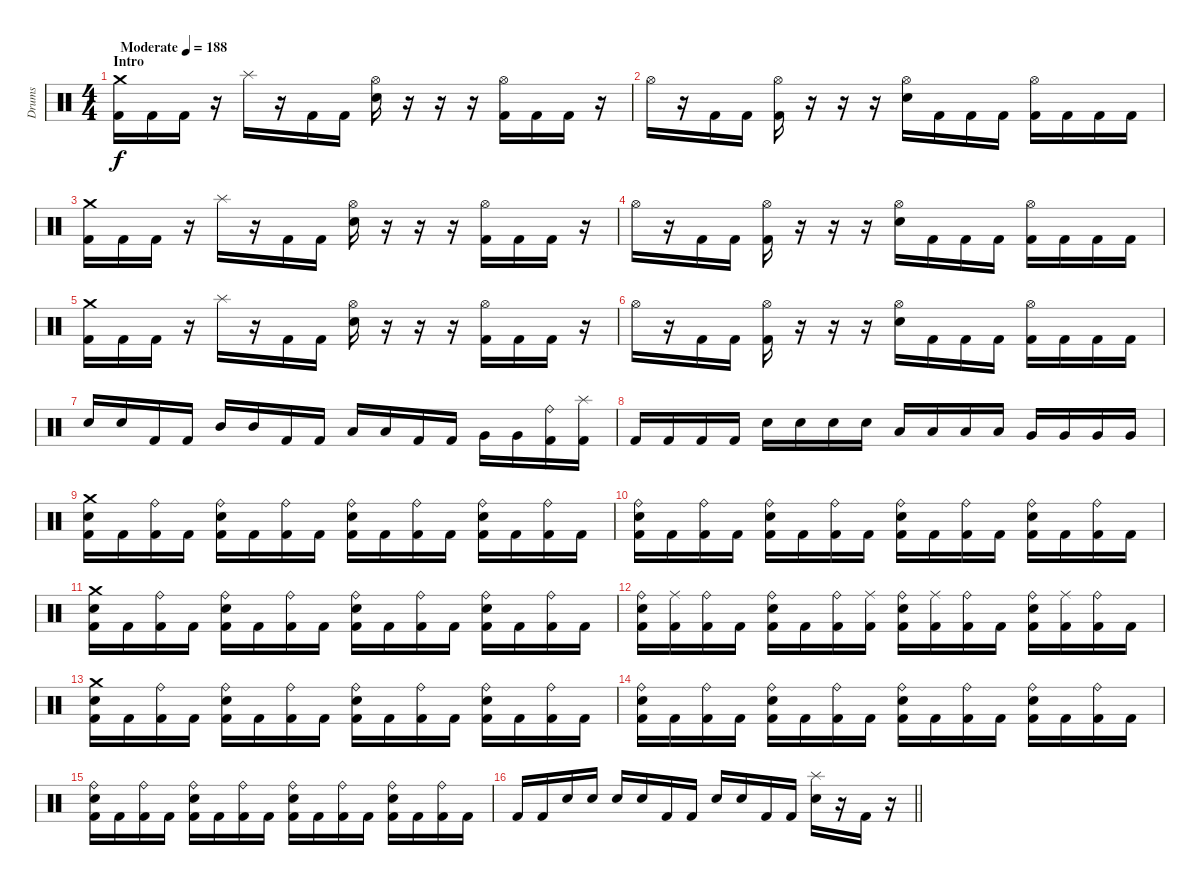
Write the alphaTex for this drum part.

\track ("Drums" "Drums") {instrument percussion}
\staff {score}
\articulation defaults
\ts (4 4)
\section ("" "Intro")
\tempo (188 "Moderate")
\clef neutral
\ks c
("Crash medium (hit)" "Kick (hit) 2").16{dy f} "Kick (hit) 2".16 "Kick (hit) 2".16 r.16 "Splash (hit)".16 r.16 "Kick (hit) 2".16 "Kick (hit) 2".16 ("Hi-Hat (open)" "Snare (hit) 2").16 r.16 r.16 r.16 ("Hi-Hat (open)" "Kick (hit) 2").16 "Kick (hit) 2".16 "Kick (hit) 2".16 r.16 |
"Hi-Hat (open)".16 r.16 "Kick (hit) 2".16 "Kick (hit) 2".16 ("Hi-Hat (open)" "Kick (hit) 2").16 r.16 r.16 r.16 ("Hi-Hat (open)" "Snare (hit) 2").16 "Kick (hit) 2".16 "Kick (hit) 2".16 "Kick (hit) 2".16 ("Hi-Hat (open)" "Kick (hit) 2").16 "Kick (hit) 2".16 "Kick (hit) 2".16 "Kick (hit) 2".16 |
("Crash medium (hit)" "Kick (hit) 2").16 "Kick (hit) 2".16 "Kick (hit) 2".16 r.16 "Splash (hit)".16 r.16 "Kick (hit) 2".16 "Kick (hit) 2".16 ("Hi-Hat (open)" "Snare (hit) 2").16 r.16 r.16 r.16 ("Hi-Hat (open)" "Kick (hit) 2").16 "Kick (hit) 2".16 "Kick (hit) 2".16 r.16 |
"Hi-Hat (open)".16 r.16 "Kick (hit) 2".16 "Kick (hit) 2".16 ("Hi-Hat (open)" "Kick (hit) 2").16 r.16 r.16 r.16 ("Hi-Hat (open)" "Snare (hit) 2").16 "Kick (hit) 2".16 "Kick (hit) 2".16 "Kick (hit) 2".16 ("Hi-Hat (open)" "Kick (hit) 2").16 "Kick (hit) 2".16 "Kick (hit) 2".16 "Kick (hit) 2".16 |
("Crash medium (hit)" "Kick (hit) 2").16 "Kick (hit) 2".16 "Kick (hit) 2".16 r.16 "Splash (hit)".16 r.16 "Kick (hit) 2".16 "Kick (hit) 2".16 ("Hi-Hat (open)" "Snare (hit) 2").16 r.16 r.16 r.16 ("Hi-Hat (open)" "Kick (hit) 2").16 "Kick (hit) 2".16 "Kick (hit) 2".16 r.16 |
"Hi-Hat (open)".16 r.16 "Kick (hit) 2".16 "Kick (hit) 2".16 ("Hi-Hat (open)" "Kick (hit) 2").16 r.16 r.16 r.16 ("Hi-Hat (open)" "Snare (hit) 2").16 "Kick (hit) 2".16 "Kick (hit) 2".16 "Kick (hit) 2".16 ("Hi-Hat (open)" "Kick (hit) 2").16 "Kick (hit) 2".16 "Kick (hit) 2".16 "Kick (hit) 2".16 |
"Snare (hit) 2".16 "Snare (hit) 2".16 "Kick (hit) 2".16 "Kick (hit) 2".16 "Mid Tom (hit)".16 "Mid Tom (hit)".16 "Kick (hit) 2".16 "Kick (hit) 2".16 "Low Tom (hit)".16 "Low Tom (hit)".16 "Kick (hit) 2".16 "Kick (hit) 2".16 "Very Low Tom (hit)".16 "Very Low Tom (hit)".16 ("Ride (bell)" "Kick (hit) 2").16 ("Splash (hit)" "Kick (hit) 2").16 |
"Kick (hit) 2".16 "Kick (hit) 2".16 "Kick (hit) 2".16 "Kick (hit) 2".16 "Snare (hit) 2".16 "Snare (hit) 2".16 "Snare (hit) 2".16 "Snare (hit) 2".16 "Low Tom (hit)".16 "Low Tom (hit)".16 "Low Tom (hit)".16 "Low Tom (hit)".16 "Very Low Tom (hit)".16 "Very Low Tom (hit)".16 "Very Low Tom (hit)".16 "Very Low Tom (hit)".16 |
("Crash medium (hit)" "Snare (hit) 2" "Kick (hit) 2").16 "Kick (hit) 2".16 ("Ride (bell)" "Kick (hit) 2").16 "Kick (hit) 2".16 ("Ride (bell)" "Snare (hit) 2" "Kick (hit) 2").16 "Kick (hit) 2".16 ("Ride (bell)" "Kick (hit) 2").16 "Kick (hit) 2".16 ("Ride (bell)" "Snare (hit) 2" "Kick (hit) 2").16 "Kick (hit) 2".16 ("Ride (bell)" "Kick (hit) 2").16 "Kick (hit) 2".16 ("Ride (bell)" "Snare (hit) 2" "Kick (hit) 2").16 "Kick (hit) 2".16 ("Ride (bell)" "Kick (hit) 2").16 "Kick (hit) 2".16 |
("Ride (bell)" "Snare (hit) 2" "Kick (hit) 2").16 "Kick (hit) 2".16 ("Ride (bell)" "Kick (hit) 2").16 "Kick (hit) 2".16 ("Ride (bell)" "Snare (hit) 2" "Kick (hit) 2").16 "Kick (hit) 2".16 ("Ride (bell)" "Kick (hit) 2").16 "Kick (hit) 2".16 ("Ride (bell)" "Snare (hit) 2" "Kick (hit) 2").16 "Kick (hit) 2".16 ("Ride (bell)" "Kick (hit) 2").16 "Kick (hit) 2".16 ("Ride (bell)" "Snare (hit) 2" "Kick (hit) 2").16 "Kick (hit) 2".16 ("Ride (bell)" "Kick (hit) 2").16 "Kick (hit) 2".16 |
("Crash medium (hit)" "Snare (hit) 2" "Kick (hit) 2").16 "Kick (hit) 2".16 ("Ride (bell)" "Kick (hit) 2").16 "Kick (hit) 2".16 ("Ride (bell)" "Snare (hit) 2" "Kick (hit) 2").16 "Kick (hit) 2".16 ("Ride (bell)" "Kick (hit) 2").16 "Kick (hit) 2".16 ("Ride (bell)" "Snare (hit) 2" "Kick (hit) 2").16 "Kick (hit) 2".16 ("Ride (bell)" "Kick (hit) 2").16 "Kick (hit) 2".16 ("Ride (bell)" "Snare (hit) 2" "Kick (hit) 2").16 "Kick (hit) 2".16 ("Ride (bell)" "Kick (hit) 2").16 "Kick (hit) 2".16 |
("Ride (bell)" "Snare (hit) 2" "Kick (hit) 2").16 ("Ride (middle)" "Kick (hit) 2").16 ("Ride (bell)" "Kick (hit) 2").16 "Kick (hit) 2".16 ("Ride (bell)" "Snare (hit) 2" "Kick (hit) 2").16 "Kick (hit) 2".16 ("Ride (bell)" "Kick (hit) 2").16 ("Ride (middle)" "Kick (hit) 2").16 ("Ride (bell)" "Snare (hit) 2" "Kick (hit) 2").16 ("Ride (middle)" "Kick (hit) 2").16 ("Ride (bell)" "Kick (hit) 2").16 "Kick (hit) 2".16 ("Ride (bell)" "Snare (hit) 2" "Kick (hit) 2").16 ("Ride (middle)" "Kick (hit) 2").16 ("Ride (bell)" "Kick (hit) 2").16 "Kick (hit) 2".16 |
("Crash medium (hit)" "Snare (hit) 2" "Kick (hit) 2").16 "Kick (hit) 2".16 ("Ride (bell)" "Kick (hit) 2").16 "Kick (hit) 2".16 ("Ride (bell)" "Snare (hit) 2" "Kick (hit) 2").16 "Kick (hit) 2".16 ("Ride (bell)" "Kick (hit) 2").16 "Kick (hit) 2".16 ("Ride (bell)" "Snare (hit) 2" "Kick (hit) 2").16 "Kick (hit) 2".16 ("Ride (bell)" "Kick (hit) 2").16 "Kick (hit) 2".16 ("Ride (bell)" "Snare (hit) 2" "Kick (hit) 2").16 "Kick (hit) 2".16 ("Ride (bell)" "Kick (hit) 2").16 "Kick (hit) 2".16 |
("Ride (bell)" "Snare (hit) 2" "Kick (hit) 2").16 "Kick (hit) 2".16 ("Ride (bell)" "Kick (hit) 2").16 "Kick (hit) 2".16 ("Ride (bell)" "Snare (hit) 2" "Kick (hit) 2").16 "Kick (hit) 2".16 ("Ride (bell)" "Kick (hit) 2").16 "Kick (hit) 2".16 ("Ride (bell)" "Snare (hit) 2" "Kick (hit) 2").16 "Kick (hit) 2".16 ("Ride (bell)" "Kick (hit) 2").16 "Kick (hit) 2".16 ("Ride (bell)" "Snare (hit) 2" "Kick (hit) 2").16 "Kick (hit) 2".16 ("Ride (bell)" "Kick (hit) 2").16 "Kick (hit) 2".16 |
("Ride (bell)" "Snare (hit) 2" "Kick (hit) 2").16 "Kick (hit) 2".16 ("Ride (bell)" "Kick (hit) 2").16 "Kick (hit) 2".16 ("Ride (bell)" "Snare (hit) 2" "Kick (hit) 2").16 "Kick (hit) 2".16 ("Ride (bell)" "Kick (hit) 2").16 "Kick (hit) 2".16 ("Ride (bell)" "Snare (hit) 2" "Kick (hit) 2").16 "Kick (hit) 2".16 ("Ride (bell)" "Kick (hit) 2").16 "Kick (hit) 2".16 ("Ride (bell)" "Snare (hit) 2" "Kick (hit) 2").16 "Kick (hit) 2".16 ("Ride (bell)" "Kick (hit) 2").16 "Kick (hit) 2".16 |
\barLineRight lightlight "Kick (hit) 2".16 "Kick (hit) 2".16 "Snare (hit) 2".16 "Snare (hit) 2".16 "Snare (hit) 2".16 "Snare (hit) 2".16 "Kick (hit) 2".16 "Kick (hit) 2".16 "Snare (hit) 2".16 "Snare (hit) 2".16 "Kick (hit) 2".16 "Kick (hit) 2".16
("Splash (hit)" "Snare (hit) 2").16 r.16 "Kick (hit) 2".16 r.16
